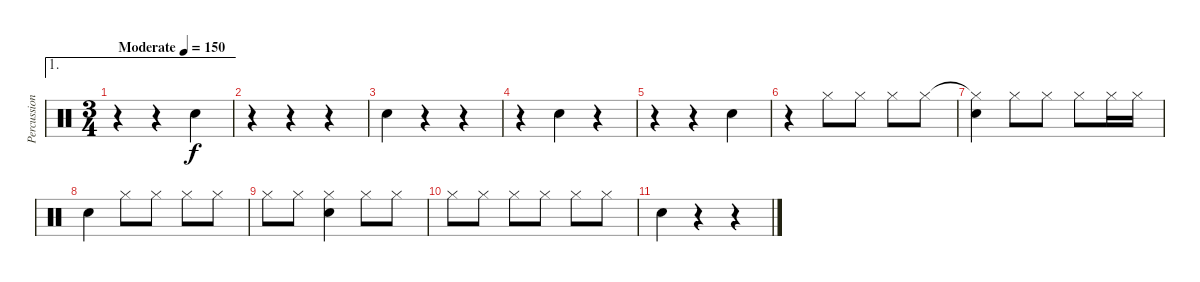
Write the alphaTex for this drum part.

\track ("Percussion" "Percussion") {instrument percussion}
\staff {score}
\articulation defaults
\ae 1
\ts (3 4)
\tempo (150 "Moderate")
\clef neutral
\ks c
r.4{dy f} r.4 "Hand Clap (hit)".4{volume 13 balance 8} |
r.4 r.4 r.4 |
"Hand Clap (hit)".4 r.4 r.4 |
r.4 "Hand Clap (hit)".4 r.4 |
r.4 r.4 "Hand Clap (hit)".4 |
r.4 "Hi-Hat (closed)".8 "Hi-Hat (closed)".8 "Hi-Hat (closed)".8 "Hi-Hat (closed)".8 |
("Hi-Hat (closed)"{t} "Hand Clap (hit)").4 "Hi-Hat (closed)".8 "Hi-Hat (closed)".8 "Hi-Hat (closed)".8 "Hi-Hat (closed)".16 "Hi-Hat (closed)".16 |
"Hand Clap (hit)".4 "Hi-Hat (closed)".8 "Hi-Hat (closed)".8 "Hi-Hat (closed)".8 "Hi-Hat (closed)".8 |
"Hi-Hat (closed)".8 "Hi-Hat (closed)".8 ("Hi-Hat (closed)" "Hand Clap (hit)").4 "Hi-Hat (closed)".8 "Hi-Hat (closed)".8 |
"Hi-Hat (closed)".8 "Hi-Hat (closed)".8 "Hi-Hat (closed)".8 "Hi-Hat (closed)".8 "Hi-Hat (closed)".8 "Hi-Hat (closed)".8 |
"Hand Clap (hit)".4 r.4 r.4
